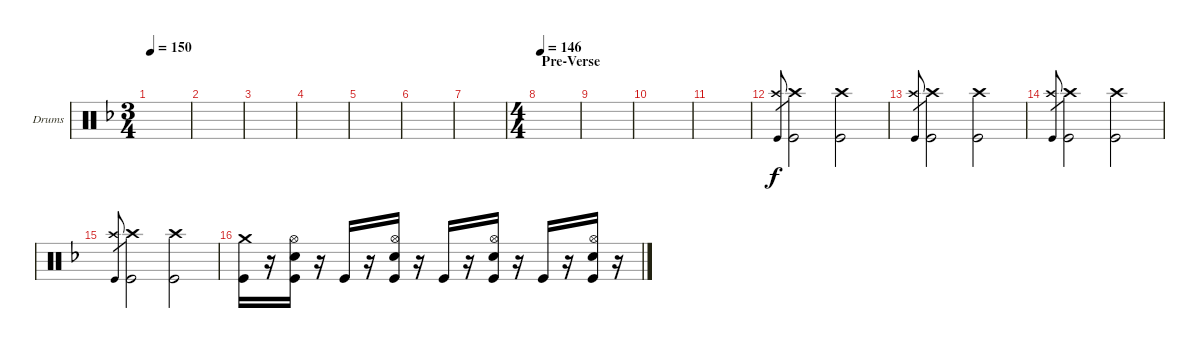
\defaultSystemsLayout 4
\bracketExtendMode groupsimilarinstruments
\firstSystemTrackNameOrientation horizontal
\otherSystemsTrackNameOrientation horizontal
\track ("Gar Samuelson (Drums)" "Drums") {instrument percussion}
\staff {score}
\articulation defaults
\ts (3 4)
\tempo 150
\clef neutral
\scale
0.333333
\ks dminor
|
\scale
0.333333 |
\scale
0.333333 |
\scale
0.333333 |
\scale
0.333333 |
\scale
0.25 |
\scale
0.25 |
\ts (4 4)
\section ("" "Pre-Verse")
\tempo 146
\scale
0.5 |
\scale
0.333333 |
\scale
0.333333 |
|
\scale
0.333333 ("Crash high (hit)" "Kick (hit)").8{gr} ("Crash high (hit)" "Kick (hit)").2 ("Crash high (hit)" "Kick (hit)").2 |
\scale
0.333333 ("Crash high (hit)" "Kick (hit)").8{gr} ("Crash high (hit)" "Kick (hit)").2 ("Crash high (hit)" "Kick (hit)").2 |
("Crash high (hit)" "Kick (hit)").8{gr} ("Crash high (hit)" "Kick (hit)").2 ("Crash high (hit)" "Kick (hit)").2 |
("Crash high (hit)" "Kick (hit)").8{gr} ("Crash high (hit)" "Kick (hit)").2 ("Crash high (hit)" "Kick (hit)").2 |
\scale
0.333333 ("Crash medium (hit)" "Kick (hit)").16 r.16 ("Hi-Hat (open)" "Snare (hit) 2" "Kick (hit)").16 r.16 "Kick (hit)".16 r.16 ("Hi-Hat (open)" "Snare (hit) 2" "Kick (hit)").16 r.16 "Kick (hit)".16 r.16 ("Hi-Hat (open)" "Snare (hit) 2" "Kick (hit)").16 r.16 "Kick (hit)".16 r.16 ("Hi-Hat (open)" "Snare (hit) 2" "Kick (hit)").16 r.16
